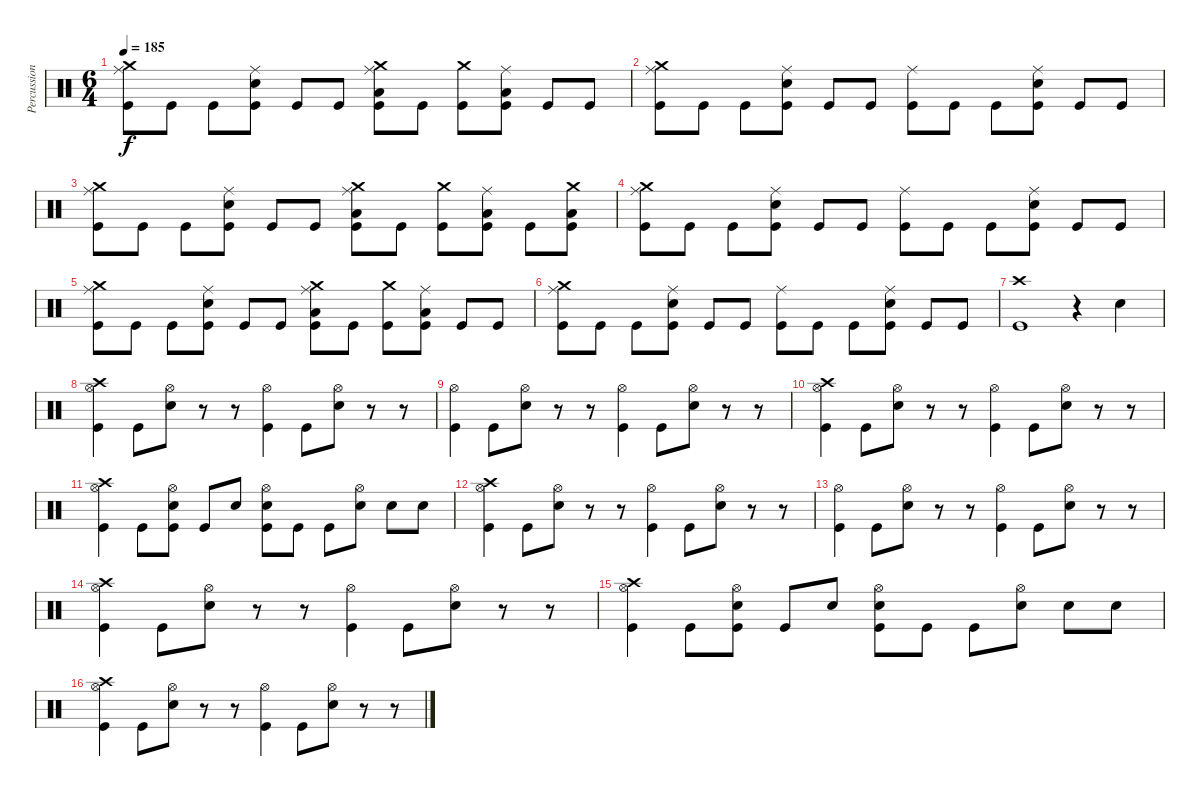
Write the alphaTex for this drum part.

\track ("Percussion" "Percussion") {instrument percussion}
\staff {score}
\articulation defaults
\ts (6 4)
\tempo 185
\clef neutral
\ks c
("Crash medium (hit)" "Ride (middle)" "Kick (hit)").8{dy f} "Kick (hit)".8 "Kick (hit)".8 ("Electric Snare (hit)" "Ride (middle)" "Kick (hit)").8 "Kick (hit)".8 "Kick (hit)".8 ("Low Floor Tom (hit)" "Ride (middle)" "Crash medium (hit)" "Kick (hit)").8 "Kick (hit)".8 ("Crash medium (hit)" "Kick (hit)").8 ("Low Floor Tom (hit)" "Ride (middle)" "Kick (hit)").8 "Kick (hit)".8 "Kick (hit)".8 |
("Crash medium (hit)" "Ride (middle)" "Kick (hit)").8 "Kick (hit)".8 "Kick (hit)".8 ("Electric Snare (hit)" "Ride (middle)" "Kick (hit)").8 "Kick (hit)".8 "Kick (hit)".8 ("Ride (middle)" "Kick (hit)").8 "Kick (hit)".8 "Kick (hit)".8 ("Electric Snare (hit)" "Ride (middle)" "Kick (hit)").8 "Kick (hit)".8 "Kick (hit)".8 |
("Crash medium (hit)" "Ride (middle)" "Kick (hit)").8 "Kick (hit)".8 "Kick (hit)".8 ("Electric Snare (hit)" "Ride (middle)" "Kick (hit)").8 "Kick (hit)".8 "Kick (hit)".8 ("Low Floor Tom (hit)" "Ride (middle)" "Crash medium (hit)" "Kick (hit)").8 "Kick (hit)".8 ("Crash medium (hit)" "Kick (hit)").8 ("Low Floor Tom (hit)" "Ride (middle)" "Kick (hit)").8 "Kick (hit)".8 ("Low Floor Tom (hit)" "Crash medium (hit)" "Kick (hit)").8 |
("Crash medium (hit)" "Ride (middle)" "Kick (hit)").8 "Kick (hit)".8 "Kick (hit)".8 ("Electric Snare (hit)" "Ride (middle)" "Kick (hit)").8 "Kick (hit)".8 "Kick (hit)".8 ("Ride (middle)" "Kick (hit)").8 "Kick (hit)".8 "Kick (hit)".8 ("Electric Snare (hit)" "Ride (middle)" "Kick (hit)").8 "Kick (hit)".8 "Kick (hit)".8 |
("Crash medium (hit)" "Ride (middle)" "Kick (hit)").8 "Kick (hit)".8 "Kick (hit)".8 ("Electric Snare (hit)" "Ride (middle)" "Kick (hit)").8 "Kick (hit)".8 "Kick (hit)".8 ("Low Floor Tom (hit)" "Ride (middle)" "Crash medium (hit)" "Kick (hit)").8 "Kick (hit)".8 ("Crash medium (hit)" "Kick (hit)").8 ("Low Floor Tom (hit)" "Ride (middle)" "Kick (hit)").8 "Kick (hit)".8 "Kick (hit)".8 |
("Crash medium (hit)" "Ride (middle)" "Kick (hit)").8 "Kick (hit)".8 "Kick (hit)".8 ("Electric Snare (hit)" "Ride (middle)" "Kick (hit)").8 "Kick (hit)".8 "Kick (hit)".8 ("Ride (middle)" "Kick (hit)").8 "Kick (hit)".8 "Kick (hit)".8 ("Electric Snare (hit)" "Ride (middle)" "Kick (hit)").8 "Kick (hit)".8 "Kick (hit)".8 |
("Crash high (hit)" "Kick (hit)").1 r.4 "Electric Snare (hit)".4 |
("Crash high (hit)" "Hi-Hat (open)" "Kick (hit)").4 "Kick (hit)".8 ("Hi-Hat (open)" "Electric Snare (hit)").8 r.8 r.8 ("Hi-Hat (open)" "Kick (hit)").4 "Kick (hit)".8 ("Hi-Hat (open)" "Electric Snare (hit)").8 r.8 r.8 |
("Hi-Hat (open)" "Kick (hit)").4 "Kick (hit)".8 ("Hi-Hat (open)" "Electric Snare (hit)").8 r.8 r.8 ("Hi-Hat (open)" "Kick (hit)").4 "Kick (hit)".8 ("Hi-Hat (open)" "Electric Snare (hit)").8 r.8 r.8 |
("Crash high (hit)" "Hi-Hat (open)" "Kick (hit)").4 "Kick (hit)".8 ("Hi-Hat (open)" "Electric Snare (hit)").8 r.8 r.8 ("Hi-Hat (open)" "Kick (hit)").4 "Kick (hit)".8 ("Hi-Hat (open)" "Electric Snare (hit)").8 r.8 r.8 |
("Crash high (hit)" "Hi-Hat (open)" "Kick (hit)").4 "Kick (hit)".8 ("Hi-Hat (open)" "Electric Snare (hit)" "Kick (hit)").8 "Kick (hit)".8 "Electric Snare (hit)".8 ("Hi-Hat (open)" "Electric Snare (hit)" "Kick (hit)").8 "Kick (hit)".8 "Kick (hit)".8 ("Hi-Hat (open)" "Electric Snare (hit)").8 "Electric Snare (hit)".8 "Electric Snare (hit)".8 |
("Crash high (hit)" "Hi-Hat (open)" "Kick (hit)").4 "Kick (hit)".8 ("Hi-Hat (open)" "Electric Snare (hit)").8 r.8 r.8 ("Hi-Hat (open)" "Kick (hit)").4 "Kick (hit)".8 ("Hi-Hat (open)" "Electric Snare (hit)").8 r.8 r.8 |
("Hi-Hat (open)" "Kick (hit)").4 "Kick (hit)".8 ("Hi-Hat (open)" "Electric Snare (hit)").8 r.8 r.8 ("Hi-Hat (open)" "Kick (hit)").4 "Kick (hit)".8 ("Hi-Hat (open)" "Electric Snare (hit)").8 r.8 r.8 |
("Crash high (hit)" "Hi-Hat (open)" "Kick (hit)").4 "Kick (hit)".8 ("Hi-Hat (open)" "Electric Snare (hit)").8 r.8 r.8 ("Hi-Hat (open)" "Kick (hit)").4 "Kick (hit)".8 ("Hi-Hat (open)" "Electric Snare (hit)").8 r.8 r.8 |
("Crash high (hit)" "Hi-Hat (open)" "Kick (hit)").4 "Kick (hit)".8 ("Hi-Hat (open)" "Electric Snare (hit)" "Kick (hit)").8 "Kick (hit)".8 "Electric Snare (hit)".8 ("Hi-Hat (open)" "Electric Snare (hit)" "Kick (hit)").8 "Kick (hit)".8 "Kick (hit)".8 ("Hi-Hat (open)" "Electric Snare (hit)").8 "Electric Snare (hit)".8 "Electric Snare (hit)".8 |
("Crash high (hit)" "Hi-Hat (open)" "Kick (hit)").4 "Kick (hit)".8 ("Hi-Hat (open)" "Electric Snare (hit)").8 r.8 r.8 ("Hi-Hat (open)" "Kick (hit)").4 "Kick (hit)".8 ("Hi-Hat (open)" "Electric Snare (hit)").8 r.8 r.8
